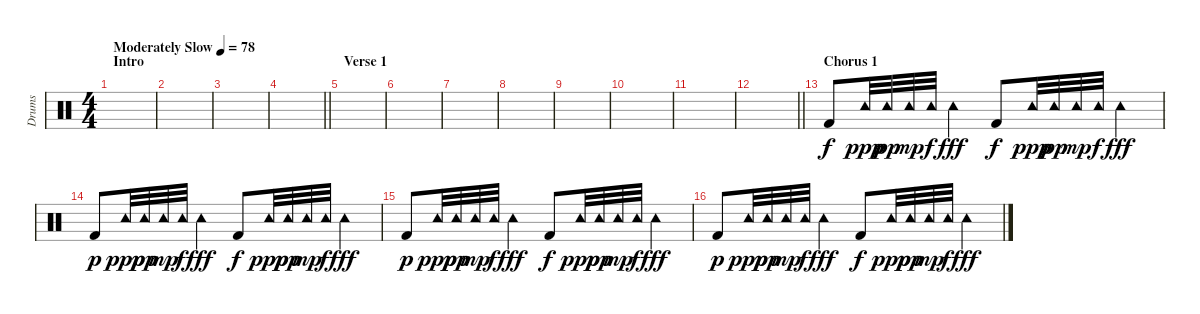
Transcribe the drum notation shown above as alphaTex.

\track ("Drums" "Drums") {instrument percussion}
\staff {score}
\articulation defaults
\ts (4 4)
\section ("" "Intro")
\tempo (78 "Moderately Slow")
\clef neutral
\ks c
|
|
|
\barLineRight lightlight
|
\section ("" "Verse 1")
|
|
|
|
|
|
|
\barLineRight lightlight
|
\section ("" "Chorus 1")
"Kick (hit) 2".8 "Tambourine (hit)".32{dy ppp} "Tambourine (hit)".32{dy pp} "Tambourine (hit)".32{dy mp} "Tambourine (hit)".32{dy f} "Tambourine (hit)".4{dy fff} "Kick (hit) 2".8{dy f} "Tambourine (hit)".32{dy ppp} "Tambourine (hit)".32{dy pp} "Tambourine (hit)".32{dy mp} "Tambourine (hit)".32{dy f} "Tambourine (hit)".4{dy fff} |
"Kick (hit) 2".8{dy p} "Tambourine (hit)".32{dy ppp} "Tambourine (hit)".32{dy pp} "Tambourine (hit)".32{dy mp} "Tambourine (hit)".32{dy f} "Tambourine (hit)".4{dy fff} "Kick (hit) 2".8{dy f} "Tambourine (hit)".32{dy ppp} "Tambourine (hit)".32{dy pp} "Tambourine (hit)".32{dy mp} "Tambourine (hit)".32{dy f} "Tambourine (hit)".4{dy fff} |
"Kick (hit) 2".8{dy p} "Tambourine (hit)".32{dy ppp} "Tambourine (hit)".32{dy pp} "Tambourine (hit)".32{dy mp} "Tambourine (hit)".32{dy f} "Tambourine (hit)".4{dy fff} "Kick (hit) 2".8{dy f} "Tambourine (hit)".32{dy ppp} "Tambourine (hit)".32{dy pp} "Tambourine (hit)".32{dy mp} "Tambourine (hit)".32{dy f} "Tambourine (hit)".4{dy fff} |
"Kick (hit) 2".8{dy p} "Tambourine (hit)".32{dy ppp} "Tambourine (hit)".32{dy pp} "Tambourine (hit)".32{dy mp} "Tambourine (hit)".32{dy f} "Tambourine (hit)".4{dy fff} "Kick (hit) 2".8{dy f} "Tambourine (hit)".32{dy ppp} "Tambourine (hit)".32{dy pp} "Tambourine (hit)".32{dy mp} "Tambourine (hit)".32{dy f} "Tambourine (hit)".4{dy fff}
